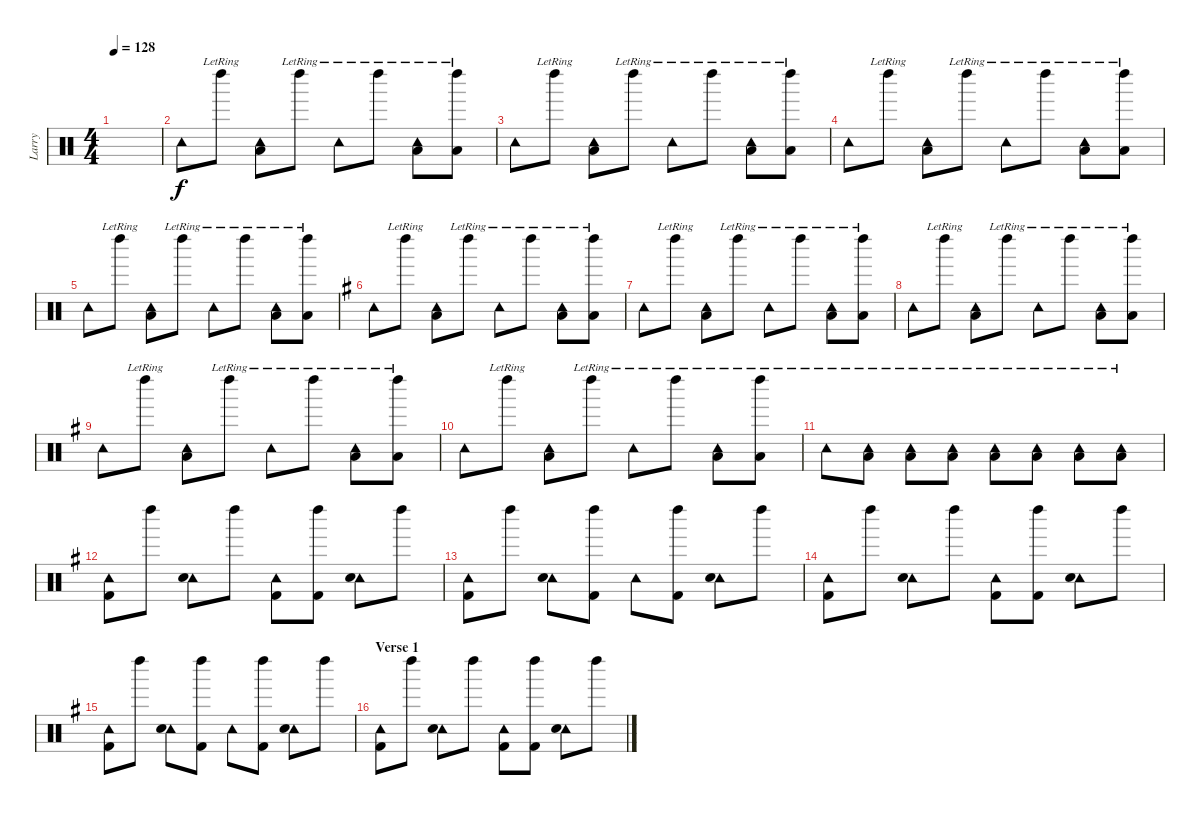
\track ("Larry" "Larry") {instrument percussion}
\staff {score}
\articulation defaults
\ts (4 4)
\tempo 128
\clef neutral
\ks c
|
"Tambourine (hit)".8 "Left Maraca (hit)"{lr}.8 ("Tambourine (hit)" "Low Floor Tom (hit)").8 "Left Maraca (hit)"{lr}.8 "Tambourine (hit)"{lr}.8 "Left Maraca (hit)"{lr}.8 ("Tambourine (hit)"{lr} "Low Floor Tom (hit)").8 ("Left Maraca (hit)"{lr} "Low Floor Tom (hit)").8 |
"Tambourine (hit)".8 "Left Maraca (hit)"{lr}.8 ("Tambourine (hit)" "Low Floor Tom (hit)").8 "Left Maraca (hit)"{lr}.8 "Tambourine (hit)"{lr}.8 "Left Maraca (hit)"{lr}.8 ("Tambourine (hit)"{lr} "Low Floor Tom (hit)").8 ("Left Maraca (hit)"{lr} "Low Floor Tom (hit)").8 |
"Tambourine (hit)".8 "Left Maraca (hit)"{lr}.8 ("Tambourine (hit)" "Low Floor Tom (hit)").8 "Left Maraca (hit)"{lr}.8 "Tambourine (hit)"{lr}.8 "Left Maraca (hit)"{lr}.8 ("Tambourine (hit)"{lr} "Low Floor Tom (hit)").8 ("Left Maraca (hit)"{lr} "Low Floor Tom (hit)").8 |
"Tambourine (hit)".8 "Left Maraca (hit)"{lr}.8 ("Tambourine (hit)" "Low Floor Tom (hit)").8 "Left Maraca (hit)"{lr}.8 "Tambourine (hit)"{lr}.8 "Left Maraca (hit)"{lr}.8 ("Tambourine (hit)"{lr} "Low Floor Tom (hit)").8 ("Left Maraca (hit)"{lr} "Low Floor Tom (hit)").8 |
\ks g "Tambourine (hit)".8 "Left Maraca (hit)"{lr}.8
("Tambourine (hit)" "Low Floor Tom (hit)").8 "Left Maraca (hit)"{lr}.8 "Tambourine (hit)"{lr}.8 "Left Maraca (hit)"{lr}.8 ("Tambourine (hit)"{lr} "Low Floor Tom (hit)").8 ("Left Maraca (hit)"{lr} "Low Floor Tom (hit)").8 |
"Tambourine (hit)".8 "Left Maraca (hit)"{lr}.8 ("Tambourine (hit)" "Low Floor Tom (hit)").8 "Left Maraca (hit)"{lr}.8 "Tambourine (hit)"{lr}.8 "Left Maraca (hit)"{lr}.8 ("Tambourine (hit)"{lr} "Low Floor Tom (hit)").8 ("Left Maraca (hit)"{lr} "Low Floor Tom (hit)").8 |
"Tambourine (hit)".8 "Left Maraca (hit)"{lr}.8 ("Tambourine (hit)" "Low Floor Tom (hit)").8 "Left Maraca (hit)"{lr}.8 "Tambourine (hit)"{lr}.8 "Left Maraca (hit)"{lr}.8 ("Tambourine (hit)"{lr} "Low Floor Tom (hit)").8 ("Left Maraca (hit)"{lr} "Low Floor Tom (hit)").8 |
"Tambourine (hit)".8 "Left Maraca (hit)"{lr}.8 ("Tambourine (hit)" "Low Floor Tom (hit)").8 "Left Maraca (hit)"{lr}.8 "Tambourine (hit)"{lr}.8 "Left Maraca (hit)"{lr}.8 ("Tambourine (hit)"{lr} "Low Floor Tom (hit)").8 ("Left Maraca (hit)"{lr} "Low Floor Tom (hit)").8 |
"Tambourine (hit)".8 "Left Maraca (hit)"{lr}.8 ("Tambourine (hit)" "Low Floor Tom (hit)").8 "Left Maraca (hit)"{lr}.8 "Tambourine (hit)"{lr}.8 "Left Maraca (hit)"{lr}.8 ("Tambourine (hit)"{lr} "Low Floor Tom (hit)").8 ("Left Maraca (hit)"{lr} "Low Floor Tom (hit)").8 |
"Tambourine (hit)"{lr}.8 ("Tambourine (hit)"{lr} "Low Floor Tom (hit)").8 ("Tambourine (hit)"{lr} "Low Floor Tom (hit)").8 ("Tambourine (hit)"{lr} "Low Floor Tom (hit)").8 ("Tambourine (hit)"{lr} "Low Floor Tom (hit)").8 ("Tambourine (hit)"{lr} "Low Floor Tom (hit)").8 ("Tambourine (hit)"{lr} "Low Floor Tom (hit)").8 ("Tambourine (hit)"{lr} "Low Floor Tom (hit)").8 |
("Tambourine (hit)" "Kick (hit) 2").8 "Left Maraca (hit)".8 ("Tambourine (hit)" "Snare (hit) 2").8 "Left Maraca (hit)".8 ("Tambourine (hit)" "Kick (hit) 2").8 ("Left Maraca (hit)" "Kick (hit) 2").8 ("Tambourine (hit)" "Snare (hit) 2").8 "Left Maraca (hit)".8 |
("Tambourine (hit)" "Kick (hit) 2").8 "Left Maraca (hit)".8 ("Tambourine (hit)" "Snare (hit) 2").8 ("Left Maraca (hit)" "Kick (hit) 2").8 "Tambourine (hit)".8 ("Left Maraca (hit)" "Kick (hit) 2").8 ("Tambourine (hit)" "Snare (hit) 2").8 "Left Maraca (hit)".8 |
("Tambourine (hit)" "Kick (hit) 2").8 "Left Maraca (hit)".8 ("Tambourine (hit)" "Snare (hit) 2").8 "Left Maraca (hit)".8 ("Tambourine (hit)" "Kick (hit) 2").8 ("Left Maraca (hit)" "Kick (hit) 2").8 ("Tambourine (hit)" "Snare (hit) 2").8 "Left Maraca (hit)".8 |
("Tambourine (hit)" "Kick (hit) 2").8 "Left Maraca (hit)".8 ("Tambourine (hit)" "Snare (hit) 2").8 ("Left Maraca (hit)" "Kick (hit) 2").8 "Tambourine (hit)".8 ("Left Maraca (hit)" "Kick (hit) 2").8 ("Tambourine (hit)" "Snare (hit) 2").8 "Left Maraca (hit)".8 |
\section ("" "Verse 1")
("Tambourine (hit)" "Kick (hit) 2").8 "Left Maraca (hit)".8 ("Tambourine (hit)" "Snare (hit) 2").8 "Left Maraca (hit)".8 ("Tambourine (hit)" "Kick (hit) 2").8 ("Left Maraca (hit)" "Kick (hit) 2").8 ("Tambourine (hit)" "Snare (hit) 2").8 "Left Maraca (hit)".8
